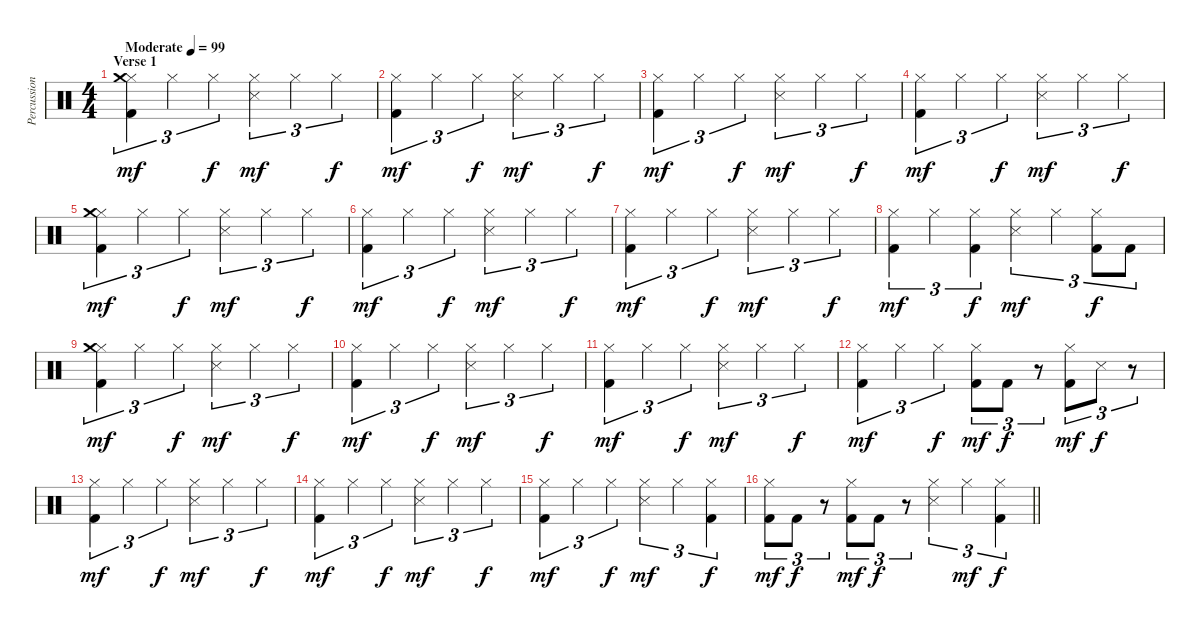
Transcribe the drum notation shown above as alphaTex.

\track ("Percussion" "Percussion") {instrument percussion}
\staff {score}
\articulation defaults
\ts (4 4)
\section ("" "Verse 1")
\tempo (99 "Moderate")
\clef neutral
\ks c
("Hi-Hat (closed)" "Crash medium (hit)" "Kick (hit) 2").4{tu (3 2) dy mf} "Hi-Hat (closed)".4{tu (3 2)} "Hi-Hat (closed)".4{tu (3 2) dy f} ("Hi-Hat (closed)" "Snare (side stick) 3").4{tu (3 2) dy mf} "Hi-Hat (closed)".4{tu (3 2)} "Hi-Hat (closed)".4{tu (3 2) dy f} |
("Hi-Hat (closed)" "Kick (hit) 2").4{tu (3 2) dy mf} "Hi-Hat (closed)".4{tu (3 2)} "Hi-Hat (closed)".4{tu (3 2) dy f} ("Hi-Hat (closed)" "Snare (side stick) 3").4{tu (3 2) dy mf} "Hi-Hat (closed)".4{tu (3 2)} "Hi-Hat (closed)".4{tu (3 2) dy f} |
("Hi-Hat (closed)" "Kick (hit) 2").4{tu (3 2) dy mf} "Hi-Hat (closed)".4{tu (3 2)} "Hi-Hat (closed)".4{tu (3 2) dy f} ("Hi-Hat (closed)" "Snare (side stick) 3").4{tu (3 2) dy mf} "Hi-Hat (closed)".4{tu (3 2)} "Hi-Hat (closed)".4{tu (3 2) dy f} |
("Hi-Hat (closed)" "Kick (hit) 2").4{tu (3 2) dy mf} "Hi-Hat (closed)".4{tu (3 2)} "Hi-Hat (closed)".4{tu (3 2) dy f} ("Hi-Hat (closed)" "Snare (side stick) 3").4{tu (3 2) dy mf} "Hi-Hat (closed)".4{tu (3 2)} "Hi-Hat (closed)".4{tu (3 2) dy f} |
("Hi-Hat (closed)" "Crash medium (hit)" "Kick (hit) 2").4{tu (3 2) dy mf} "Hi-Hat (closed)".4{tu (3 2)} "Hi-Hat (closed)".4{tu (3 2) dy f} ("Hi-Hat (closed)" "Snare (side stick) 3").4{tu (3 2) dy mf} "Hi-Hat (closed)".4{tu (3 2)} "Hi-Hat (closed)".4{tu (3 2) dy f} |
("Hi-Hat (closed)" "Kick (hit) 2").4{tu (3 2) dy mf} "Hi-Hat (closed)".4{tu (3 2)} "Hi-Hat (closed)".4{tu (3 2) dy f} ("Hi-Hat (closed)" "Snare (side stick) 3").4{tu (3 2) dy mf} "Hi-Hat (closed)".4{tu (3 2)} "Hi-Hat (closed)".4{tu (3 2) dy f} |
("Hi-Hat (closed)" "Kick (hit) 2").4{tu (3 2) dy mf} "Hi-Hat (closed)".4{tu (3 2)} "Hi-Hat (closed)".4{tu (3 2) dy f} ("Hi-Hat (closed)" "Snare (side stick) 3").4{tu (3 2) dy mf} "Hi-Hat (closed)".4{tu (3 2)} "Hi-Hat (closed)".4{tu (3 2) dy f} |
("Hi-Hat (closed)" "Kick (hit) 2").4{tu (3 2) dy mf} "Hi-Hat (closed)".4{tu (3 2)} ("Hi-Hat (closed)" "Kick (hit) 2").4{tu (3 2) dy f} ("Hi-Hat (closed)" "Snare (side stick) 3").4{tu (3 2) dy mf} "Hi-Hat (closed)".4{tu (3 2)} ("Hi-Hat (closed)" "Kick (hit) 2").8{tu (3 2) dy f} "Kick (hit) 2".8{tu (3 2)} |
("Hi-Hat (closed)" "Crash medium (hit)" "Kick (hit) 2").4{tu (3 2) dy mf} "Hi-Hat (closed)".4{tu (3 2)} "Hi-Hat (closed)".4{tu (3 2) dy f} ("Hi-Hat (closed)" "Snare (side stick) 3").4{tu (3 2) dy mf} "Hi-Hat (closed)".4{tu (3 2)} "Hi-Hat (closed)".4{tu (3 2) dy f} |
("Hi-Hat (closed)" "Kick (hit) 2").4{tu (3 2) dy mf} "Hi-Hat (closed)".4{tu (3 2)} "Hi-Hat (closed)".4{tu (3 2) dy f} ("Hi-Hat (closed)" "Snare (side stick) 3").4{tu (3 2) dy mf} "Hi-Hat (closed)".4{tu (3 2)} "Hi-Hat (closed)".4{tu (3 2) dy f} |
("Hi-Hat (closed)" "Kick (hit) 2").4{tu (3 2) dy mf} "Hi-Hat (closed)".4{tu (3 2)} "Hi-Hat (closed)".4{tu (3 2) dy f} ("Hi-Hat (closed)" "Snare (side stick) 3").4{tu (3 2) dy mf} "Hi-Hat (closed)".4{tu (3 2)} "Hi-Hat (closed)".4{tu (3 2) dy f} |
("Hi-Hat (closed)" "Kick (hit) 2").4{tu (3 2) dy mf} "Hi-Hat (closed)".4{tu (3 2)} "Hi-Hat (closed)".4{tu (3 2) dy f} ("Hi-Hat (closed)" "Kick (hit) 2").8{tu (3 2) dy mf} "Kick (hit) 2".8{tu (3 2) dy f} r.8{tu (3 2)} ("Hi-Hat (closed)" "Kick (hit) 2").8{tu (3 2) dy mf} "Snare (side stick) 3".8{tu (3 2) dy f} r.8{tu (3 2)} |
("Hi-Hat (closed)" "Kick (hit) 2").4{tu (3 2) dy mf} "Hi-Hat (closed)".4{tu (3 2)} "Hi-Hat (closed)".4{tu (3 2) dy f} ("Hi-Hat (closed)" "Snare (side stick) 3").4{tu (3 2) dy mf} "Hi-Hat (closed)".4{tu (3 2)} "Hi-Hat (closed)".4{tu (3 2) dy f} |
("Hi-Hat (closed)" "Kick (hit) 2").4{tu (3 2) dy mf} "Hi-Hat (closed)".4{tu (3 2)} "Hi-Hat (closed)".4{tu (3 2) dy f} ("Hi-Hat (closed)" "Snare (side stick) 3").4{tu (3 2) dy mf} "Hi-Hat (closed)".4{tu (3 2)} "Hi-Hat (closed)".4{tu (3 2) dy f} |
("Hi-Hat (closed)" "Kick (hit) 2").4{tu (3 2) dy mf} "Hi-Hat (closed)".4{tu (3 2)} "Hi-Hat (closed)".4{tu (3 2) dy f} ("Hi-Hat (closed)" "Snare (side stick) 3").4{tu (3 2) dy mf} "Hi-Hat (closed)".4{tu (3 2)} ("Hi-Hat (closed)" "Kick (hit) 2").4{tu (3 2) dy f} |
\barLineRight lightlight
("Hi-Hat (closed)" "Kick (hit) 2").8{tu (3 2) dy mf} "Kick (hit) 2".8{tu (3 2) dy f} r.8{tu (3 2)} ("Hi-Hat (closed)" "Kick (hit) 2").8{tu (3 2) dy mf} "Kick (hit) 2".8{tu (3 2) dy f} r.8{tu (3 2)} ("Hi-Hat (closed)" "Snare (side stick) 3").4{tu (3 2)} "Hi-Hat (closed)".4{tu (3 2) dy mf} ("Hi-Hat (closed)" "Kick (hit) 2").4{tu (3 2) dy f}
